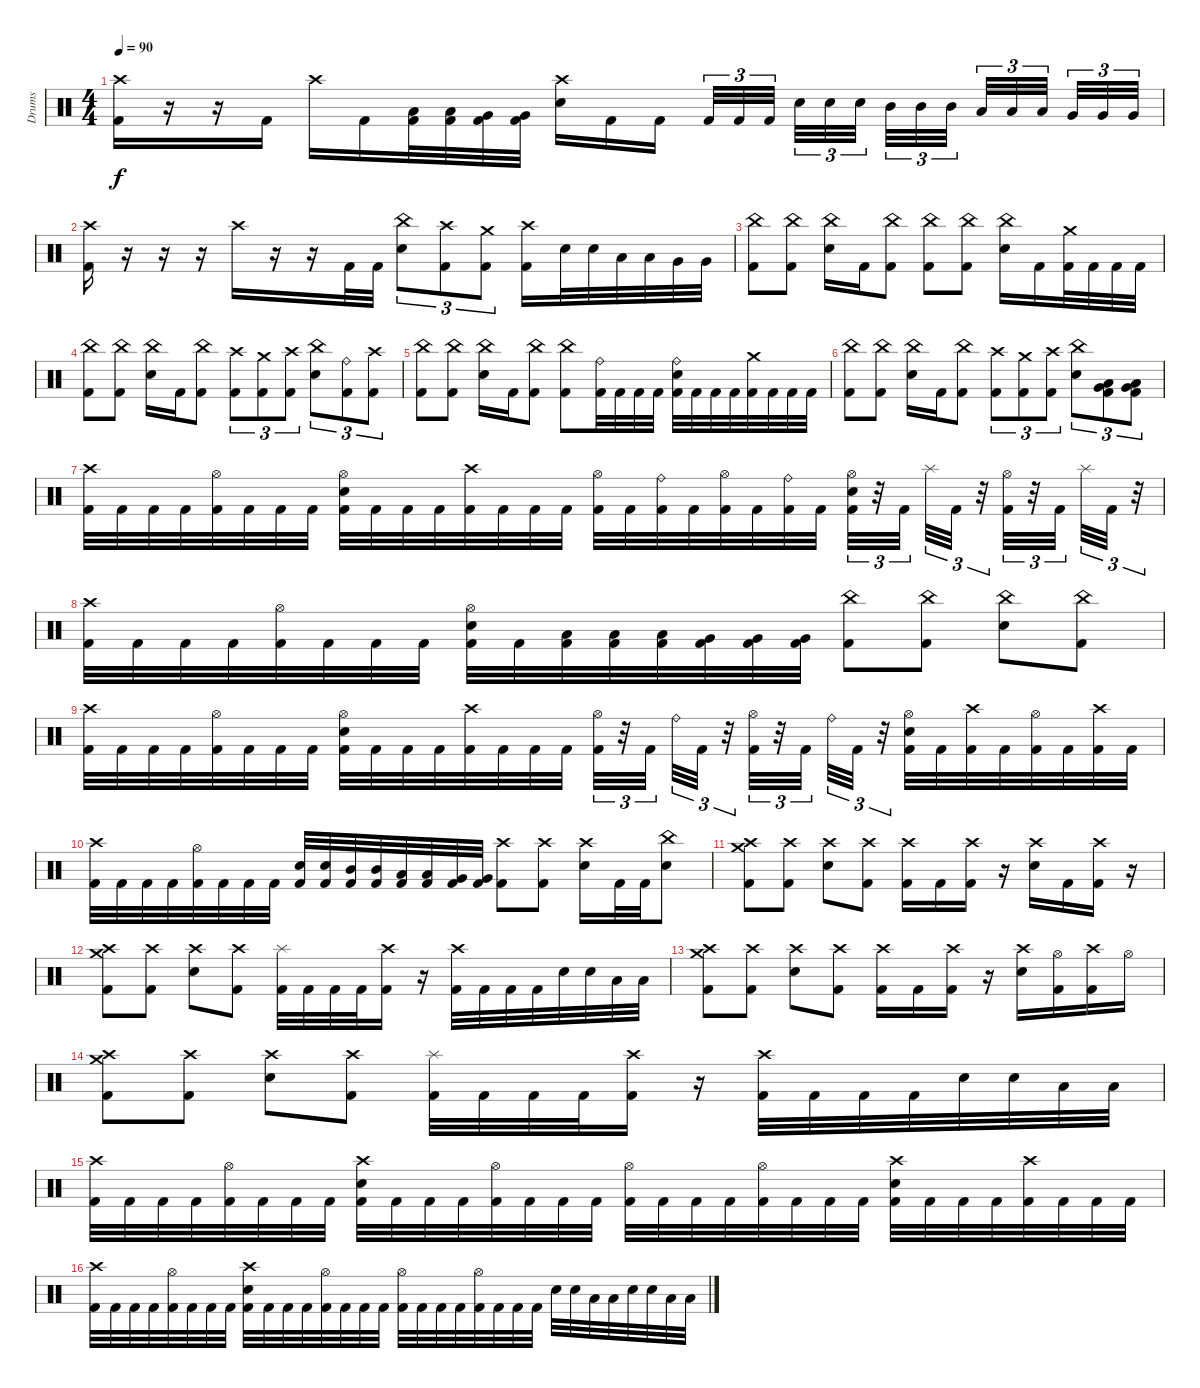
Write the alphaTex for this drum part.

\track ("Drums" "Drums") {instrument percussion}
\staff {score}
\articulation defaults
\ts (4 4)
\tempo 90
\clef neutral
\ks c
("Crash high (hit)" "Kick (hit) 2").16{dy f} r.16 r.16 "Kick (hit) 2".16 "Crash high (hit)".16 "Kick (hit) 2".16 ("Low Tom (hit)" "Kick (hit) 2").32 ("Low Tom (hit)" "Kick (hit) 2").32 ("Very Low Tom (hit)" "Kick (hit) 2").32 ("Very Low Tom (hit)" "Kick (hit) 2").32 ("Crash high (hit)" "Electric Snare (hit)").16 "Kick (hit) 2".16 "Kick (hit) 2".16{beam splitsecondary} "Kick (hit) 2".32{tu (3 2)} "Kick (hit) 2".32{tu (3 2)} "Kick (hit) 2".32{tu (3 2)} "Electric Snare (hit)".32{tu (3 2)} "Electric Snare (hit)".32{tu (3 2)} "Electric Snare (hit)".32{tu (3 2) beam splitsecondary} "Mid Tom (hit)".32{tu (3 2)} "Mid Tom (hit)".32{tu (3 2)} "Mid Tom (hit)".32{tu (3 2) beam splitsecondary} "Low Tom (hit)".32{tu (3 2)} "Low Tom (hit)".32{tu (3 2)} "Low Tom (hit)".32{tu (3 2) beam splitsecondary} "Very Low Tom (hit)".32{tu (3 2)} "Very Low Tom (hit)".32{tu (3 2)} "Very Low Tom (hit)".32{tu (3 2)} |
("Crash high (hit)" "Kick (hit) 2").16 r.16 r.16 r.16 "Crash high (hit)".16 r.16 r.16 "Kick (hit) 2".32 "Kick (hit) 2".32 ("China (hit)" "Electric Snare (hit)").8{tu (3 2)} ("Crash high (hit)" "Kick (hit) 2").8{tu (3 2)} ("Crash medium (hit)" "Kick (hit) 2").8{tu (3 2)} ("Crash high (hit)" "Kick (hit) 2").16 "Electric Snare (hit)".32 "Electric Snare (hit)".32 "Low Tom (hit)".32 "Low Tom (hit)".32 "Very Low Tom (hit)".32 "Very Low Tom (hit)".32 |
("China (hit)" "Kick (hit) 2").8 ("China (hit)" "Kick (hit) 2").8 ("China (hit)" "Electric Snare (hit)").16 "Kick (hit) 2".16 ("China (hit)" "Kick (hit) 2").8 ("China (hit)" "Kick (hit) 2").8 ("China (hit)" "Kick (hit) 2").8 ("China (hit)" "Electric Snare (hit)").16 "Kick (hit) 2".16 ("Crash medium (hit)" "Kick (hit) 2").32 "Kick (hit) 2".32 "Kick (hit) 2".32 "Kick (hit) 2".32 |
("China (hit)" "Kick (hit) 2").8 ("China (hit)" "Kick (hit) 2").8 ("China (hit)" "Electric Snare (hit)").16 "Kick (hit) 2".16 ("China (hit)" "Kick (hit) 2").8 ("Crash high (hit)" "Kick (hit) 2").8{tu (3 2)} ("Crash medium (hit)" "Kick (hit) 2").8{tu (3 2)} ("Crash high (hit)" "Kick (hit) 2").8{tu (3 2)} ("China (hit)" "Electric Snare (hit)").8{tu (3 2)} ("Ride (bell)" "Kick (hit) 2").8{tu (3 2)} ("Crash high (hit)" "Kick (hit) 2").8{tu (3 2)} |
("China (hit)" "Kick (hit) 2").8 ("China (hit)" "Kick (hit) 2").8 ("China (hit)" "Electric Snare (hit)").16 "Kick (hit) 2".16 ("China (hit)" "Kick (hit) 2").8 ("China (hit)" "Kick (hit) 2").8 ("Ride (bell)" "Kick (hit) 2").32 "Kick (hit) 2".32 "Kick (hit) 2".32 "Kick (hit) 2".32 ("Ride (bell)" "Electric Snare (hit)" "Kick (hit) 2").32 "Kick (hit) 2".32 "Kick (hit) 2".32 "Kick (hit) 2".32 ("Crash medium (hit)" "Kick (hit) 2").32 "Kick (hit) 2".32 "Kick (hit) 2".32 "Kick (hit) 2".32 |
("China (hit)" "Kick (hit) 2").8 ("China (hit)" "Kick (hit) 2").8 ("China (hit)" "Electric Snare (hit)").16 "Kick (hit) 2".16 ("China (hit)" "Kick (hit) 2").8 ("Crash high (hit)" "Kick (hit) 2").8{tu (3 2)} ("Crash medium (hit)" "Kick (hit) 2").8{tu (3 2)} ("Crash high (hit)" "Kick (hit) 2").8{tu (3 2)} ("China (hit)" "Electric Snare (hit)").8{tu (3 2)} ("Low Tom (hit)" "Very Low Tom (hit)" "Kick (hit) 2").8{tu (3 2)} ("Very Low Tom (hit)" "Low Floor Tom (hit)" "Kick (hit) 2").8{tu (3 2)} |
("Crash high (hit)" "Kick (hit) 2").32 "Kick (hit) 2".32 "Kick (hit) 2".32 "Kick (hit) 2".32 ("Hi-Hat (open)" "Kick (hit) 2").32 "Kick (hit) 2".32 "Kick (hit) 2".32 "Kick (hit) 2".32 ("Hi-Hat (open)" "Electric Snare (hit)" "Kick (hit) 2").32 "Kick (hit) 2".32 "Kick (hit) 2".32 "Kick (hit) 2".32 ("Crash high (hit)" "Kick (hit) 2").32 "Kick (hit) 2".32 "Kick (hit) 2".32 "Kick (hit) 2".32 ("Hi-Hat (open)" "Kick (hit) 2").32 "Kick (hit) 2".32 ("Ride (bell)" "Kick (hit) 2").32 "Kick (hit) 2".32 ("Hi-Hat (open)" "Kick (hit) 2").32 "Kick (hit) 2".32 ("Ride (bell)" "Kick (hit) 2").32 "Kick (hit) 2".32 ("Hi-Hat (open)" "Electric Snare (hit)" "Kick (hit) 2").32{tu (3 2)} r.32{tu (3 2)} "Kick (hit) 2".32{tu (3 2) beam splitsecondary} "Splash (hit)".32{tu (3 2)} "Kick (hit) 2".32{tu (3 2)} r.32{tu (3 2)} ("Hi-Hat (open)" "Kick (hit) 2").32{tu (3 2)} r.32{tu (3 2)} "Kick (hit) 2".32{tu (3 2) beam splitsecondary} "Splash (hit)".32{tu (3 2)} "Kick (hit) 2".32{tu (3 2)} r.32{tu (3 2)} |
("Crash high (hit)" "Kick (hit) 2").32 "Kick (hit) 2".32 "Kick (hit) 2".32 "Kick (hit) 2".32 ("Hi-Hat (open)" "Kick (hit) 2").32 "Kick (hit) 2".32 "Kick (hit) 2".32 "Kick (hit) 2".32 ("Hi-Hat (open)" "Electric Snare (hit)" "Kick (hit) 2").32 "Kick (hit) 2".32 ("Low Tom (hit)" "Kick (hit) 2").32 ("Low Tom (hit)" "Kick (hit) 2").32 ("Low Tom (hit)" "Kick (hit) 2").32 ("Very Low Tom (hit)" "Kick (hit) 2").32 ("Very Low Tom (hit)" "Kick (hit) 2").32 ("Very Low Tom (hit)" "Kick (hit) 2").32 ("China (hit)" "Kick (hit) 2").8 ("China (hit)" "Kick (hit) 2").8 ("China (hit)" "Electric Snare (hit)").8 ("China (hit)" "Kick (hit) 2").8 |
("Crash high (hit)" "Kick (hit) 2").32 "Kick (hit) 2".32 "Kick (hit) 2".32 "Kick (hit) 2".32 ("Hi-Hat (open)" "Kick (hit) 2").32 "Kick (hit) 2".32 "Kick (hit) 2".32 "Kick (hit) 2".32 ("Hi-Hat (open)" "Electric Snare (hit)" "Kick (hit) 2").32 "Kick (hit) 2".32 "Kick (hit) 2".32 "Kick (hit) 2".32 ("Crash high (hit)" "Kick (hit) 2").32 "Kick (hit) 2".32 "Kick (hit) 2".32 "Kick (hit) 2".32 ("Hi-Hat (open)" "Kick (hit) 2").32{tu (3 2)} r.32{tu (3 2)} "Kick (hit) 2".32{tu (3 2) beam splitsecondary} "Ride (bell)".32{tu (3 2)} "Kick (hit) 2".32{tu (3 2)} r.32{tu (3 2)} ("Hi-Hat (open)" "Kick (hit) 2").32{tu (3 2)} r.32{tu (3 2)} "Kick (hit) 2".32{tu (3 2) beam splitsecondary} "Ride (bell)".32{tu (3 2)} "Kick (hit) 2".32{tu (3 2)} r.32{tu (3 2)} ("Hi-Hat (open)" "Electric Snare (hit)" "Kick (hit) 2").32 "Kick (hit) 2".32 ("Crash high (hit)" "Kick (hit) 2").32 "Kick (hit) 2".32 ("Hi-Hat (open)" "Kick (hit) 2").32 "Kick (hit) 2".32 ("Crash high (hit)" "Kick (hit) 2").32 "Kick (hit) 2".32 |
("Crash high (hit)" "Kick (hit) 2").32 "Kick (hit) 2".32 "Kick (hit) 2".32 "Kick (hit) 2".32 ("Hi-Hat (open)" "Kick (hit) 2").32 "Kick (hit) 2".32 "Kick (hit) 2".32 "Kick (hit) 2".32 ("Electric Snare (hit)" "Kick (hit) 2").32 ("Electric Snare (hit)" "Kick (hit) 2").32 ("Mid Tom (hit)" "Kick (hit) 2").32 ("Mid Tom (hit)" "Kick (hit) 2").32 ("Low Tom (hit)" "Kick (hit) 2").32 ("Low Tom (hit)" "Kick (hit) 2").32 ("Very Low Tom (hit)" "Kick (hit) 2").32 ("Very Low Tom (hit)" "Kick (hit) 2").32 ("Crash high (hit)" "Kick (hit) 2").8 ("Crash high (hit)" "Kick (hit) 2").8 ("Crash high (hit)" "Electric Snare (hit)").16 "Kick (hit) 2".32 "Kick (hit) 2".32 ("China (hit)" "Electric Snare (hit)").8 |
("Crash high (hit)" "Crash medium (hit)" "Kick (hit) 2").8 ("Crash high (hit)" "Kick (hit) 2").8 ("Crash high (hit)" "Electric Snare (hit)").8 ("Crash high (hit)" "Kick (hit) 2").8 ("Crash high (hit)" "Kick (hit) 2").16 "Kick (hit) 2".16 ("Crash high (hit)" "Kick (hit) 2").16 r.16 ("Crash high (hit)" "Electric Snare (hit)").16 "Kick (hit) 2".16 ("Crash high (hit)" "Kick (hit) 2").16 r.16 |
("Crash high (hit)" "Crash medium (hit)" "Kick (hit) 2").8 ("Crash high (hit)" "Kick (hit) 2").8 ("Crash high (hit)" "Electric Snare (hit)").8 ("Crash high (hit)" "Kick (hit) 2").8 ("Splash (hit)" "Kick (hit) 2").32 "Kick (hit) 2".32 "Kick (hit) 2".32 "Kick (hit) 2".32 ("Crash high (hit)" "Kick (hit) 2").16 r.16 ("Crash high (hit)" "Kick (hit) 2").32 "Kick (hit) 2".32 "Kick (hit) 2".32 "Kick (hit) 2".32 "Electric Snare (hit)".32 "Electric Snare (hit)".32 "Low Tom (hit)".32 "Low Tom (hit)".32 |
("Crash high (hit)" "Crash medium (hit)" "Kick (hit) 2").8 ("Crash high (hit)" "Kick (hit) 2").8 ("Crash high (hit)" "Electric Snare (hit)").8 ("Crash high (hit)" "Kick (hit) 2").8 ("Crash high (hit)" "Kick (hit) 2").16 "Kick (hit) 2".16 ("Crash high (hit)" "Kick (hit) 2").16 r.16 ("Crash high (hit)" "Electric Snare (hit)").16 ("Hi-Hat (open)" "Kick (hit) 2").16 ("Crash high (hit)" "Kick (hit) 2").16 "Hi-Hat (open)".16 |
("Crash high (hit)" "Crash medium (hit)" "Kick (hit) 2").8 ("Crash high (hit)" "Kick (hit) 2").8 ("Crash high (hit)" "Electric Snare (hit)").8 ("Crash high (hit)" "Kick (hit) 2").8 ("Splash (hit)" "Kick (hit) 2").32 "Kick (hit) 2".32 "Kick (hit) 2".32 "Kick (hit) 2".32 ("Crash high (hit)" "Kick (hit) 2").16 r.16 ("Crash high (hit)" "Kick (hit) 2").32 "Kick (hit) 2".32 "Kick (hit) 2".32 "Kick (hit) 2".32 "Electric Snare (hit)".32 "Electric Snare (hit)".32 "Low Tom (hit)".32 "Low Tom (hit)".32 |
("Crash high (hit)" "Kick (hit) 2").32 "Kick (hit) 2".32 "Kick (hit) 2".32 "Kick (hit) 2".32 ("Hi-Hat (open)" "Kick (hit) 2").32 "Kick (hit) 2".32 "Kick (hit) 2".32 "Kick (hit) 2".32 ("Crash high (hit)" "Electric Snare (hit)" "Kick (hit) 2").32 "Kick (hit) 2".32 "Kick (hit) 2".32 "Kick (hit) 2".32 ("Hi-Hat (open)" "Kick (hit) 2").32 "Kick (hit) 2".32 "Kick (hit) 2".32 "Kick (hit) 2".32 ("Hi-Hat (open)" "Kick (hit) 2").32 "Kick (hit) 2".32 "Kick (hit) 2".32 "Kick (hit) 2".32 ("Hi-Hat (open)" "Kick (hit) 2").32 "Kick (hit) 2".32 "Kick (hit) 2".32 "Kick (hit) 2".32 ("Crash high (hit)" "Electric Snare (hit)" "Kick (hit) 2").32 "Kick (hit) 2".32 "Kick (hit) 2".32 "Kick (hit) 2".32 ("Crash high (hit)" "Kick (hit) 2").32 "Kick (hit) 2".32 "Kick (hit) 2".32 "Kick (hit) 2".32 |
("Crash high (hit)" "Kick (hit) 2").32 "Kick (hit) 2".32 "Kick (hit) 2".32 "Kick (hit) 2".32 ("Hi-Hat (open)" "Kick (hit) 2").32 "Kick (hit) 2".32 "Kick (hit) 2".32 "Kick (hit) 2".32 ("Crash high (hit)" "Electric Snare (hit)" "Kick (hit) 2").32 "Kick (hit) 2".32 "Kick (hit) 2".32 "Kick (hit) 2".32 ("Hi-Hat (open)" "Kick (hit) 2").32 "Kick (hit) 2".32 "Kick (hit) 2".32 "Kick (hit) 2".32 ("Hi-Hat (open)" "Kick (hit) 2").32 "Kick (hit) 2".32 "Kick (hit) 2".32 "Kick (hit) 2".32 ("Hi-Hat (open)" "Kick (hit) 2").32 "Kick (hit) 2".32 "Kick (hit) 2".32 "Kick (hit) 2".32 "Electric Snare (hit)".32 "Electric Snare (hit)".32 "Low Tom (hit)".32 "Low Tom (hit)".32 "Electric Snare (hit)".32 "Electric Snare (hit)".32 "Low Tom (hit)".32 "Low Tom (hit)".32
